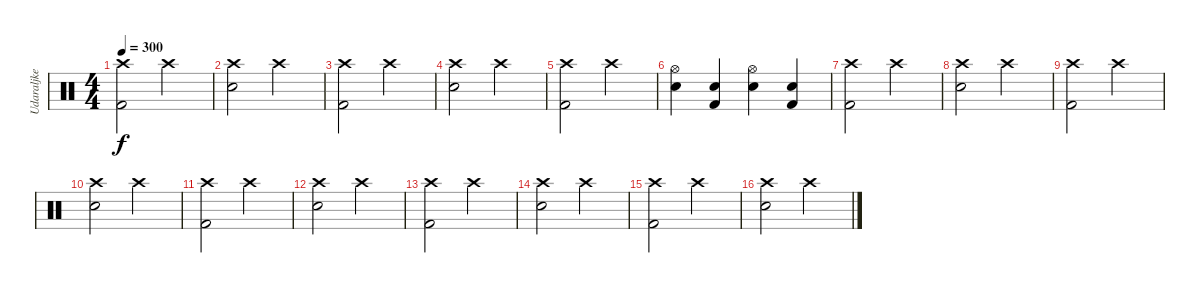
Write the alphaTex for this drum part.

\track ("Udaraljke" "Udaraljke") {instrument percussion}
\staff {score}
\articulation defaults
\ts (4 4)
\tempo 300
\clef neutral
\ks c
("Crash high (hit)" "Kick (hit) 2").2{dy f} "Crash high (hit)".2 |
("Crash high (hit)" "Electric Snare (hit)").2 "Crash high (hit)".2 |
("Crash high (hit)" "Kick (hit) 2").2 "Crash high (hit)".2 |
("Crash high (hit)" "Electric Snare (hit)").2 "Crash high (hit)".2 |
("Crash high (hit)" "Kick (hit) 2").2 "Crash high (hit)".2 |
("Hi-Hat (open)" "Electric Snare (hit)").4 ("Kick (hit) 2" "Electric Snare (hit)").4 ("Hi-Hat (open)" "Electric Snare (hit)").4 ("Kick (hit) 2" "Electric Snare (hit)").4 |
("Crash high (hit)" "Kick (hit) 2").2 "Crash high (hit)".2 |
("Crash high (hit)" "Electric Snare (hit)").2 "Crash high (hit)".2 |
("Crash high (hit)" "Kick (hit) 2").2 "Crash high (hit)".2 |
("Crash high (hit)" "Electric Snare (hit)").2 "Crash high (hit)".2 |
("Crash high (hit)" "Kick (hit) 2").2 "Crash high (hit)".2 |
("Crash high (hit)" "Electric Snare (hit)").2 "Crash high (hit)".2 |
("Crash high (hit)" "Kick (hit) 2").2 "Crash high (hit)".2 |
("Crash high (hit)" "Electric Snare (hit)").2 "Crash high (hit)".2 |
("Crash high (hit)" "Kick (hit) 2").2 "Crash high (hit)".2 |
("Crash high (hit)" "Electric Snare (hit)").2 "Crash high (hit)".2
